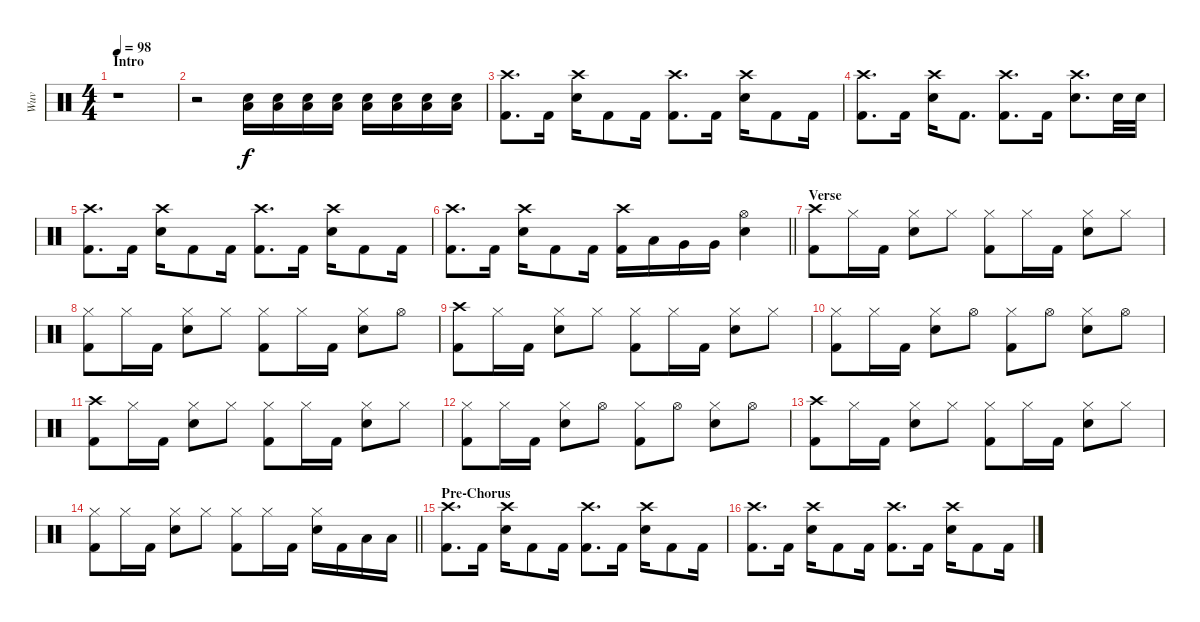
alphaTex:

\track ("Wuv" "Wuv") {instrument percussion}
\staff {score}
\articulation defaults
\ts (4 4)
\section ("" "Intro")
\tempo 98
\clef neutral
\ks c
r.1{dy f} |
r.2{volume 0} ("Low Floor Tom (hit)" "Electric Snare (hit)").16{volume 16} ("Low Floor Tom (hit)" "Electric Snare (hit)").16 ("Low Floor Tom (hit)" "Electric Snare (hit)").16 ("Low Floor Tom (hit)" "Electric Snare (hit)").16 ("Low Floor Tom (hit)" "Electric Snare (hit)").16 ("Low Floor Tom (hit)" "Electric Snare (hit)").16 ("Low Floor Tom (hit)" "Electric Snare (hit)").16 ("Low Floor Tom (hit)" "Electric Snare (hit)").16 |
("Crash high (hit)" "Kick (hit) 2").8{d} "Kick (hit) 2".16 ("Crash high (hit)" "Electric Snare (hit)").16 "Kick (hit) 2".8 "Kick (hit) 2".16 ("Crash high (hit)" "Kick (hit) 2").8{d} "Kick (hit) 2".16 ("Crash high (hit)" "Electric Snare (hit)").16 "Kick (hit) 2".8 "Kick (hit) 2".16 |
("Crash high (hit)" "Kick (hit) 2").8{d} "Kick (hit) 2".16 ("Crash high (hit)" "Electric Snare (hit)").16 "Kick (hit) 2".8{d} ("Crash high (hit)" "Kick (hit) 2").8{d} "Kick (hit) 2".16 ("Crash high (hit)" "Electric Snare (hit)").8{d} "Electric Snare (hit)".32 "Electric Snare (hit)".32 |
("Crash high (hit)" "Kick (hit) 2").8{d} "Kick (hit) 2".16 ("Crash high (hit)" "Electric Snare (hit)").16 "Kick (hit) 2".8 "Kick (hit) 2".16 ("Crash high (hit)" "Kick (hit) 2").8{d} "Kick (hit) 2".16 ("Crash high (hit)" "Electric Snare (hit)").16 "Kick (hit) 2".8 "Kick (hit) 2".16 |
\barLineRight lightlight
("Crash high (hit)" "Kick (hit) 2").8{d} "Kick (hit) 2".16 ("Crash high (hit)" "Electric Snare (hit)").16 "Kick (hit) 2".8 "Kick (hit) 2".16 ("Crash high (hit)" "Kick (hit) 2").16 "Low Tom (hit)".16 "Very Low Tom (hit)".16 "Very Low Tom (hit)".16 ("Hi-Hat (open)" "Electric Snare (hit)").4 |
\section ("" "Verse")
("Crash high (hit)" "Kick (hit) 2").8 "Hi-Hat (closed)".16 "Kick (hit) 2".16 ("Hi-Hat (closed)" "Electric Snare (hit)").8 "Hi-Hat (closed)".8 ("Hi-Hat (closed)" "Kick (hit) 2").8 "Hi-Hat (closed)".16 "Kick (hit) 2".16 ("Hi-Hat (closed)" "Electric Snare (hit)").8 "Hi-Hat (closed)".8 |
("Hi-Hat (closed)" "Kick (hit) 2").8 "Hi-Hat (closed)".16 "Kick (hit) 2".16 ("Hi-Hat (closed)" "Electric Snare (hit)").8 "Hi-Hat (closed)".8 ("Hi-Hat (closed)" "Kick (hit) 2").8 "Hi-Hat (closed)".16 "Kick (hit) 2".16 ("Hi-Hat (closed)" "Electric Snare (hit)").8 "Hi-Hat (open)".8 |
("Crash high (hit)" "Kick (hit) 2").8 "Hi-Hat (closed)".16 "Kick (hit) 2".16 ("Hi-Hat (closed)" "Electric Snare (hit)").8 "Hi-Hat (closed)".8 ("Hi-Hat (closed)" "Kick (hit) 2").8 "Hi-Hat (closed)".16 "Kick (hit) 2".16 ("Hi-Hat (closed)" "Electric Snare (hit)").8 "Hi-Hat (closed)".8 |
("Hi-Hat (closed)" "Kick (hit) 2").8 "Hi-Hat (closed)".16 "Kick (hit) 2".16 ("Hi-Hat (closed)" "Electric Snare (hit)").8 "Hi-Hat (open)".8 ("Hi-Hat (closed)" "Kick (hit) 2").8 "Hi-Hat (open)".8 ("Hi-Hat (closed)" "Electric Snare (hit)").8 "Hi-Hat (open)".8 |
("Crash high (hit)" "Kick (hit) 2").8 "Hi-Hat (closed)".16 "Kick (hit) 2".16 ("Hi-Hat (closed)" "Electric Snare (hit)").8 "Hi-Hat (closed)".8 ("Hi-Hat (closed)" "Kick (hit) 2").8 "Hi-Hat (closed)".16 "Kick (hit) 2".16 ("Hi-Hat (closed)" "Electric Snare (hit)").8 "Hi-Hat (closed)".8 |
("Hi-Hat (closed)" "Kick (hit) 2").8 "Hi-Hat (closed)".16 "Kick (hit) 2".16 ("Hi-Hat (closed)" "Electric Snare (hit)").8 "Hi-Hat (open)".8 ("Hi-Hat (closed)" "Kick (hit) 2").8 "Hi-Hat (open)".8 ("Hi-Hat (closed)" "Electric Snare (hit)").8 "Hi-Hat (open)".8 |
("Crash high (hit)" "Kick (hit) 2").8 "Hi-Hat (closed)".16 "Kick (hit) 2".16 ("Hi-Hat (closed)" "Electric Snare (hit)").8 "Hi-Hat (closed)".8 ("Hi-Hat (closed)" "Kick (hit) 2").8 "Hi-Hat (closed)".16 "Kick (hit) 2".16 ("Hi-Hat (closed)" "Electric Snare (hit)").8 "Hi-Hat (closed)".8 |
\barLineRight lightlight
("Hi-Hat (closed)" "Kick (hit) 2").8 "Hi-Hat (closed)".16 "Kick (hit) 2".16 ("Hi-Hat (closed)" "Electric Snare (hit)").8 "Hi-Hat (closed)".8 ("Hi-Hat (closed)" "Kick (hit) 2").8 "Hi-Hat (closed)".16 "Kick (hit) 2".16 ("Hi-Hat (closed)" "Electric Snare (hit)").16 "Kick (hit) 2".16 "Low Floor Tom (hit)".16 "Low Floor Tom (hit)".16 |
\section ("" "Pre-Chorus")
("Crash high (hit)" "Kick (hit) 2").8{d} "Kick (hit) 2".16 ("Crash high (hit)" "Electric Snare (hit)").16 "Kick (hit) 2".8 "Kick (hit) 2".16 ("Crash high (hit)" "Kick (hit) 2").8{d} "Kick (hit) 2".16 ("Crash high (hit)" "Electric Snare (hit)").16 "Kick (hit) 2".8 "Kick (hit) 2".16 |
("Crash high (hit)" "Kick (hit) 2").8{d} "Kick (hit) 2".16 ("Crash high (hit)" "Electric Snare (hit)").16 "Kick (hit) 2".8 "Kick (hit) 2".16 ("Crash high (hit)" "Kick (hit) 2").8{d} "Kick (hit) 2".16 ("Crash high (hit)" "Electric Snare (hit)").16 "Kick (hit) 2".8 "Kick (hit) 2".16
